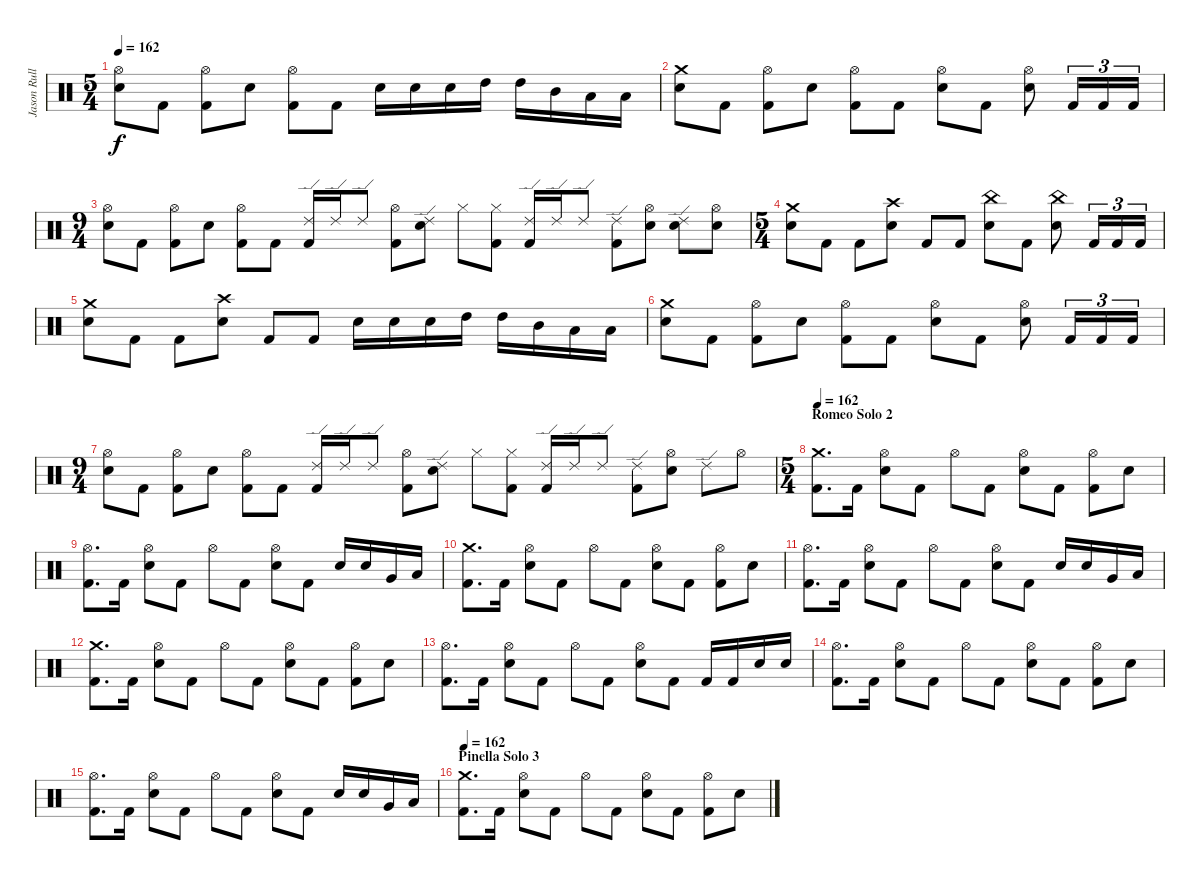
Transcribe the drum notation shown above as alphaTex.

\track ("Jason Rullo" "Jason Rull") {instrument percussion}
\staff {score}
\articulation defaults
\ts (5 4)
\tempo 162
\clef neutral
\ks c
("Hi-Hat (open)" "Electric Snare (hit)").8{dy f} "Kick (hit) 2".8 ("Hi-Hat (open)" "Kick (hit) 2").8 "Electric Snare (hit)".8 ("Hi-Hat (open)" "Kick (hit) 2").8 "Kick (hit) 2".8 "Electric Snare (hit)".16 "Electric Snare (hit)".16 "Electric Snare (hit)".16 "High Tom (hit)".16 "High Tom (hit)".16 "Mid Tom (hit)".16 "Low Tom (hit)".16 "Low Tom (hit)".16 |
("Crash medium (hit)" "Electric Snare (hit)").8 "Kick (hit) 2".8 ("Hi-Hat (open)" "Kick (hit) 2").8 "Electric Snare (hit)".8 ("Hi-Hat (open)" "Kick (hit) 2").8 "Kick (hit) 2".8 ("Hi-Hat (open)" "Electric Snare (hit)").8 "Kick (hit) 2".8 ("Hi-Hat (open)" "Electric Snare (hit)").8 "Kick (hit) 2".16{tu (3 2)} "Kick (hit) 2".16{tu (3 2)} "Kick (hit) 2".16{tu (3 2)} |
\ts (9 4)
("Hi-Hat (open)" "Electric Snare (hit)").8 "Kick (hit) 2".8 ("Hi-Hat (open)" "Kick (hit) 2").8 "Electric Snare (hit)".8 ("Hi-Hat (open)" "Kick (hit) 2").8 "Kick (hit) 2".8 ("Ride (edge) 2" "Kick (hit) 2").16 "Ride (edge) 2".16 "Ride (edge) 2".8 ("Hi-Hat (open)" "Kick (hit) 2").8 ("Ride (edge) 2" "Electric Snare (hit)").8 "Hi-Hat (closed)".8 ("Hi-Hat (closed)" "Kick (hit) 2").8 ("Ride (edge) 2" "Kick (hit) 2").16 "Ride (edge) 2".16 "Ride (edge) 2".8 ("Ride (edge) 2" "Kick (hit) 2").8 ("Hi-Hat (open)" "Electric Snare (hit)").8 ("Electric Snare (hit)" "Ride (edge) 2").8 ("Electric Snare (hit)" "Hi-Hat (open)").8 |
\ts (5 4)
("Crash medium (hit)" "Electric Snare (hit)").8 "Kick (hit) 2".8 "Kick (hit) 2".8 ("Crash high (hit)" "Electric Snare (hit)").8 "Kick (hit) 2".8 "Kick (hit) 2".8 ("China (hit)" "Electric Snare (hit)").8 "Kick (hit) 2".8 ("China (hit)" "Electric Snare (hit)").8 "Kick (hit) 2".16{tu (3 2)} "Kick (hit) 2".16{tu (3 2)} "Kick (hit) 2".16{tu (3 2)} |
("Crash medium (hit)" "Electric Snare (hit)").8 "Kick (hit) 2".8 "Kick (hit) 2".8 ("Crash high (hit)" "Electric Snare (hit)").8 "Kick (hit) 2".8 "Kick (hit) 2".8 "Electric Snare (hit)".16 "Electric Snare (hit)".16 "Electric Snare (hit)".16 "High Tom (hit)".16 "High Tom (hit)".16 "Mid Tom (hit)".16 "Low Tom (hit)".16 "Low Tom (hit)".16 |
("Crash medium (hit)" "Electric Snare (hit)").8 "Kick (hit) 2".8 ("Hi-Hat (open)" "Kick (hit) 2").8 "Electric Snare (hit)".8 ("Hi-Hat (open)" "Kick (hit) 2").8 "Kick (hit) 2".8 ("Hi-Hat (open)" "Electric Snare (hit)").8 "Kick (hit) 2".8 ("Hi-Hat (open)" "Electric Snare (hit)").8 "Kick (hit) 2".16{tu (3 2)} "Kick (hit) 2".16{tu (3 2)} "Kick (hit) 2".16{tu (3 2)} |
\ts (9 4)
("Hi-Hat (open)" "Electric Snare (hit)").8 "Kick (hit) 2".8 ("Hi-Hat (open)" "Kick (hit) 2").8 "Electric Snare (hit)".8 ("Hi-Hat (open)" "Kick (hit) 2").8 "Kick (hit) 2".8 ("Ride (edge) 2" "Kick (hit) 2").16 "Ride (edge) 2".16 "Ride (edge) 2".8 ("Hi-Hat (open)" "Kick (hit) 2").8 ("Ride (edge) 2" "Electric Snare (hit)").8 "Hi-Hat (closed)".8 ("Hi-Hat (closed)" "Kick (hit) 2").8 ("Ride (edge) 2" "Kick (hit) 2").16 "Ride (edge) 2".16 "Ride (edge) 2".8 ("Ride (edge) 2" "Kick (hit) 2").8 ("Hi-Hat (open)" "Electric Snare (hit)").8 "Ride (edge) 2".8 "Hi-Hat (open)".8 |
\ts (5 4)
\section ("" "Romeo Solo 2")
\tempo 162
("Crash medium (hit)" "Kick (hit) 2").8{d} "Kick (hit) 2".16 ("Hi-Hat (open)" "Electric Snare (hit)").8 "Kick (hit) 2".8 "Hi-Hat (open)".8 "Kick (hit) 2".8 ("Hi-Hat (open)" "Electric Snare (hit)").8 "Kick (hit) 2".8 ("Kick (hit) 2" "Hi-Hat (open)").8 "Electric Snare (hit)".8 |
("Hi-Hat (open)" "Kick (hit) 2").8{d} "Kick (hit) 2".16 ("Hi-Hat (open)" "Electric Snare (hit)").8 "Kick (hit) 2".8 "Hi-Hat (open)".8 "Kick (hit) 2".8 ("Hi-Hat (open)" "Electric Snare (hit)").8 "Kick (hit) 2".8 "Electric Snare (hit)".16 "Electric Snare (hit)".16 "Very Low Tom (hit)".16 "Low Floor Tom (hit)".16 |
("Crash medium (hit)" "Kick (hit) 2").8{d} "Kick (hit) 2".16 ("Hi-Hat (open)" "Electric Snare (hit)").8 "Kick (hit) 2".8 "Hi-Hat (open)".8 "Kick (hit) 2".8 ("Hi-Hat (open)" "Electric Snare (hit)").8 "Kick (hit) 2".8 ("Kick (hit) 2" "Hi-Hat (open)").8 "Electric Snare (hit)".8 |
("Hi-Hat (open)" "Kick (hit) 2").8{d} "Kick (hit) 2".16 ("Hi-Hat (open)" "Electric Snare (hit)").8 "Kick (hit) 2".8 "Hi-Hat (open)".8 "Kick (hit) 2".8 ("Hi-Hat (open)" "Electric Snare (hit)").8 "Kick (hit) 2".8 "Electric Snare (hit)".16 "Electric Snare (hit)".16 "Very Low Tom (hit)".16 "Low Floor Tom (hit)".16 |
("Crash medium (hit)" "Kick (hit) 2").8{d} "Kick (hit) 2".16 ("Hi-Hat (open)" "Electric Snare (hit)").8 "Kick (hit) 2".8 "Hi-Hat (open)".8 "Kick (hit) 2".8 ("Hi-Hat (open)" "Electric Snare (hit)").8 "Kick (hit) 2".8 ("Kick (hit) 2" "Hi-Hat (open)").8 "Electric Snare (hit)".8 |
("Hi-Hat (open)" "Kick (hit) 2").8{d} "Kick (hit) 2".16 ("Hi-Hat (open)" "Electric Snare (hit)").8 "Kick (hit) 2".8 "Hi-Hat (open)".8 "Kick (hit) 2".8 ("Hi-Hat (open)" "Electric Snare (hit)").8 "Kick (hit) 2".8 "Kick (hit) 2".16 "Kick (hit) 2".16 "Electric Snare (hit)".16 "Electric Snare (hit)".16 |
("Hi-Hat (open)" "Kick (hit) 2").8{d} "Kick (hit) 2".16 ("Hi-Hat (open)" "Electric Snare (hit)").8 "Kick (hit) 2".8 "Hi-Hat (open)".8 "Kick (hit) 2".8 ("Hi-Hat (open)" "Electric Snare (hit)").8 "Kick (hit) 2".8 ("Kick (hit) 2" "Hi-Hat (open)").8 "Electric Snare (hit)".8 |
("Hi-Hat (open)" "Kick (hit) 2").8{d} "Kick (hit) 2".16 ("Hi-Hat (open)" "Electric Snare (hit)").8 "Kick (hit) 2".8 "Hi-Hat (open)".8 "Kick (hit) 2".8 ("Hi-Hat (open)" "Electric Snare (hit)").8 "Kick (hit) 2".8 "Electric Snare (hit)".16 "Electric Snare (hit)".16 "Very Low Tom (hit)".16 "Low Floor Tom (hit)".16 |
\section ("" "Pinella Solo 3")
\tempo 162
("Crash medium (hit)" "Kick (hit) 2").8{d} "Kick (hit) 2".16 ("Hi-Hat (open)" "Electric Snare (hit)").8 "Kick (hit) 2".8 "Hi-Hat (open)".8 "Kick (hit) 2".8 ("Hi-Hat (open)" "Electric Snare (hit)").8 "Kick (hit) 2".8 ("Kick (hit) 2" "Hi-Hat (open)").8 "Electric Snare (hit)".8
